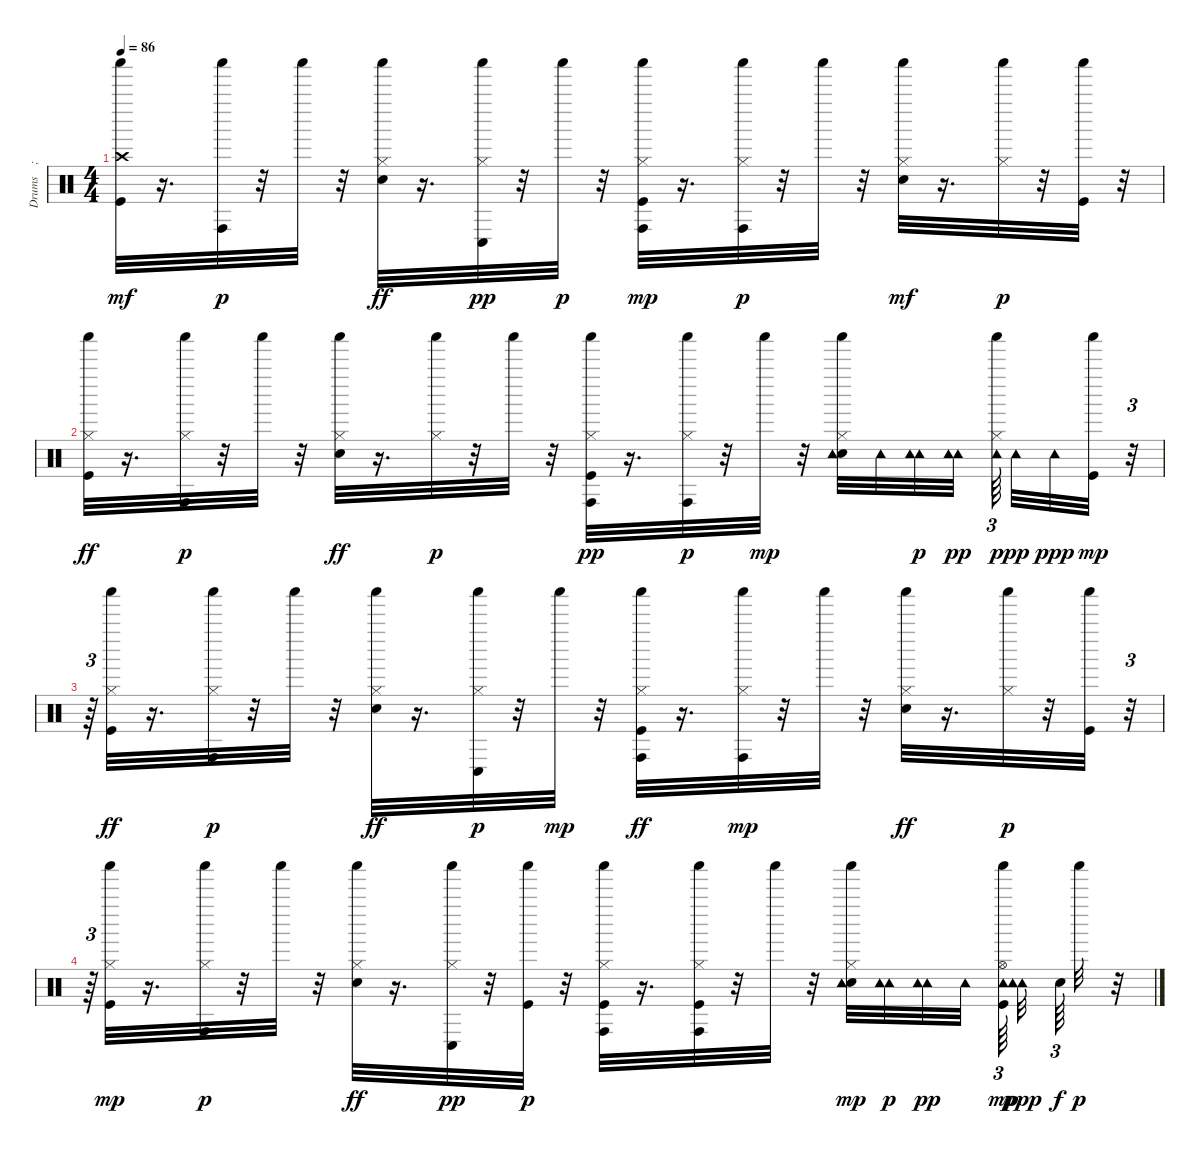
\track ("Drums    ; Standard" "Drums    ;") {instrument percussion}
\staff {score}
\articulation defaults
\ts (4 4)
\tempo 86
\clef neutral
\ks c
("Kick (hit)" "Shaker (hit)" "Crash high (hit)").32{dy mf} r.16{d} ("Shaker (hit)" "Conga high (hit)").32{dy p} r.32 "Shaker (hit)".32 r.32 ("Electric Snare (hit)" "Shaker (hit)" "Hi-Hat (closed)").32{dy ff} r.16{d} ("Shaker (hit)" "Hi-Hat (closed)" "Conga low (hit)").32{dy pp} r.32 "Shaker (hit)".32{dy p} r.32 ("Kick (hit)" "Shaker (hit)" "Conga high (hit)" "Hi-Hat (closed)").32{dy mp} r.16{d} ("Conga high (hit)" "Shaker (hit)" "Hi-Hat (closed)").32{dy p} r.32 "Shaker (hit)".32 r.32 ("Electric Snare (hit)" "Shaker (hit)" "Hi-Hat (closed)").32{dy mf} r.16{d} ("Hi-Hat (closed)" "Shaker (hit)").32{dy p} r.32 ("Shaker (hit)" "Kick (hit)").32 r.32 |
("Kick (hit)" "Shaker (hit)" "Hi-Hat (closed)").32{dy ff} r.16{d} ("Shaker (hit)" "Hi-Hat (closed)" "Conga high (hit)").32{dy p} r.32 "Shaker (hit)".32 r.32 ("Electric Snare (hit)" "Hi-Hat (closed)" "Shaker (hit)").32{dy ff} r.16{d} ("Hi-Hat (closed)" "Shaker (hit)").32{dy p} r.32 "Shaker (hit)".32 r.32 ("Kick (hit)" "Hi-Hat (closed)" "Shaker (hit)" "Conga high (hit)").32{dy pp} r.16{d} ("Hi-Hat (closed)" "Conga high (hit)" "Shaker (hit)").32{dy p} r.32 "Shaker (hit)".32{dy mp} r.32 ("Hi-Hat (closed)" "Electric Snare (hit)" "Shaker (hit)" "Tambourine (hit)").32 "Tambourine (hit)".32 ("Tambourine (hit)" "Tambourine (hit)").32{dy p} ("Tambourine (hit)" "Tambourine (hit)").32{dy pp} ("Tambourine (hit)" "Hi-Hat (closed)" "Shaker (hit)").64{tu (3 2) dy p} "Tambourine (hit)".32{dy pp} "Tambourine (hit)".32{dy ppp} ("Kick (hit)" "Shaker (hit)").32{dy mp} r.32{tu (3 2)} |
r.64{tu (3 2)} ("Kick (hit)" "Shaker (hit)" "Hi-Hat (closed)").32{dy ff} r.16{d} ("Conga high (hit)" "Shaker (hit)" "Hi-Hat (closed)").32{dy p} r.32 "Shaker (hit)".32 r.32 ("Electric Snare (hit)" "Shaker (hit)" "Hi-Hat (closed)").32{dy ff} r.16{d} ("Conga low (hit)" "Shaker (hit)" "Hi-Hat (closed)").32{dy p} r.32 "Shaker (hit)".32{dy mp} r.32 ("Kick (hit)" "Conga high (hit)" "Shaker (hit)" "Hi-Hat (closed)").32{dy ff} r.16{d} ("Conga high (hit)" "Shaker (hit)" "Hi-Hat (closed)").32{dy mp} r.32 "Shaker (hit)".32 r.32 ("Electric Snare (hit)" "Shaker (hit)" "Hi-Hat (closed)").32{dy ff} r.16{d} ("Shaker (hit)" "Hi-Hat (closed)").32{dy p} r.32 ("Kick (hit)" "Shaker (hit)").32 r.32{tu (3 2)} |
r.64{tu (3 2)} ("Shaker (hit)" "Kick (hit)" "Hi-Hat (closed)").32{dy mp} r.16{d} ("Shaker (hit)" "Conga high (hit)" "Hi-Hat (closed)").32{dy p} r.32 "Shaker (hit)".32 r.32 ("Electric Snare (hit)" "Shaker (hit)" "Hi-Hat (closed)").32{dy ff} r.16{d} ("Shaker (hit)" "Conga low (hit)" "Hi-Hat (closed)").32{dy pp} r.32 ("Kick (hit)" "Shaker (hit)").32{dy p} r.32 ("Kick (hit)" "Shaker (hit)" "Hi-Hat (closed)" "Conga high (hit)").32 r.16{d} ("Kick (hit)" "Hi-Hat (closed)" "Shaker (hit)" "Conga high (hit)").32 r.32 "Shaker (hit)".32 r.32 ("Electric Snare (hit)" "Hi-Hat (closed)" "Shaker (hit)" "Tambourine (hit)").32{dy mp} ("Tambourine (hit)" "Tambourine (hit)").32{dy p} ("Tambourine (hit)" "Tambourine (hit)").32{dy pp} "Tambourine (hit)".32 ("Tambourine (hit)" "Shaker (hit)" "Hi-Hat (open)" "Kick (hit)").64{tu (3 2) dy mp} ("Tambourine (hit)" "Tambourine (hit)").32{dy ppp} "Electric Snare (hit)".64{tu (3 2) dy f} "Shaker (hit)".32{dy p} r.32
